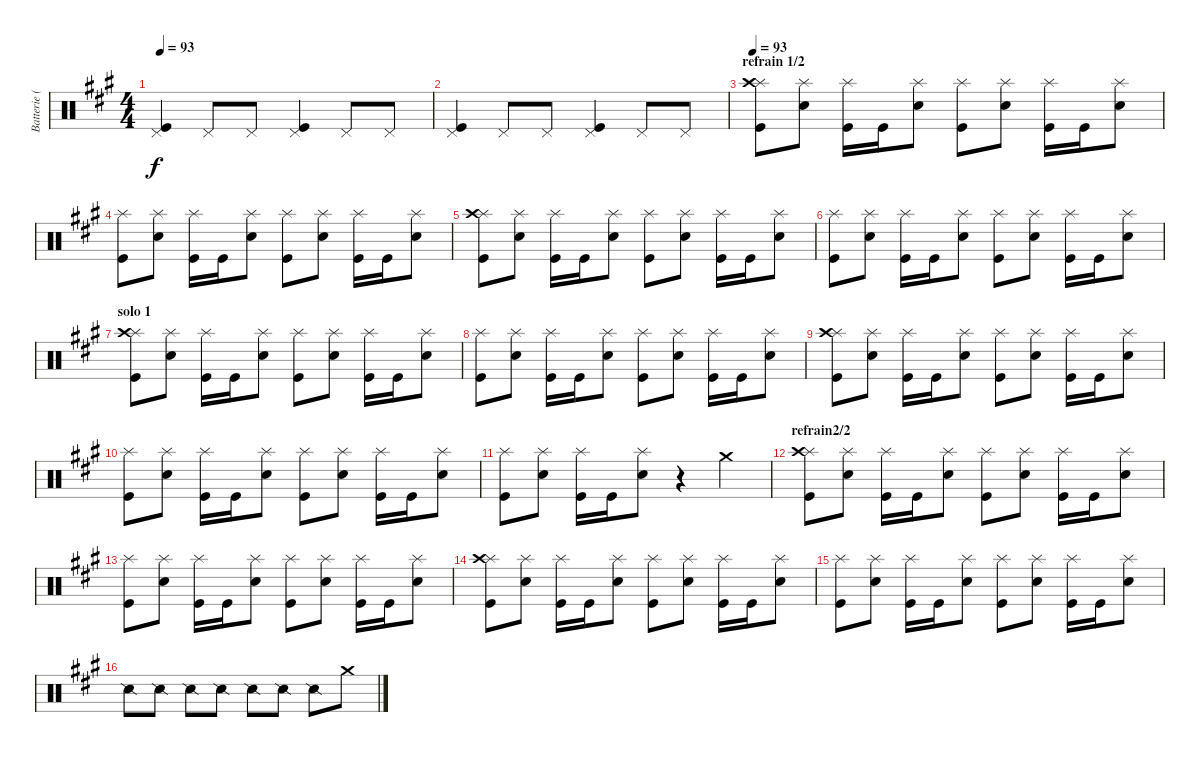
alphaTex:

\track ("Batterie (J-E)" "Batterie (") {instrument percussion}
\staff {score}
\articulation defaults
\ts (4 4)
\tempo 93
\clef neutral
\ks a
("Pedal Hi-Hat (hit)" "Kick (hit)").4{dy f} "Pedal Hi-Hat (hit)".8 "Pedal Hi-Hat (hit)".8 ("Pedal Hi-Hat (hit)" "Kick (hit)").4 "Pedal Hi-Hat (hit)".8 "Pedal Hi-Hat (hit)".8 |
("Pedal Hi-Hat (hit)" "Kick (hit)").4 "Pedal Hi-Hat (hit)".8 "Pedal Hi-Hat (hit)".8 ("Pedal Hi-Hat (hit)" "Kick (hit)").4 "Pedal Hi-Hat (hit)".8 "Pedal Hi-Hat (hit)".8 |
\section ("" "refrain 1/2")
\tempo 93
("Splash (hit)" "Crash high (hit)" "Kick (hit)").8 ("Splash (hit)" "Snare (hit) 2").8 ("Splash (hit)" "Kick (hit)").16 "Kick (hit)".16 ("Splash (hit)" "Snare (hit) 2").8 ("Splash (hit)" "Kick (hit)").8 ("Splash (hit)" "Snare (hit) 2").8 ("Splash (hit)" "Kick (hit)").16 "Kick (hit)".16 ("Splash (hit)" "Snare (hit) 2").8 |
("Splash (hit)" "Kick (hit)").8 ("Splash (hit)" "Snare (hit) 2").8 ("Splash (hit)" "Kick (hit)").16 "Kick (hit)".16 ("Splash (hit)" "Snare (hit) 2").8 ("Splash (hit)" "Kick (hit)").8 ("Splash (hit)" "Snare (hit) 2").8 ("Splash (hit)" "Kick (hit)").16 "Kick (hit)".16 ("Splash (hit)" "Snare (hit) 2").8 |
("Splash (hit)" "Crash high (hit)" "Kick (hit)").8 ("Splash (hit)" "Snare (hit) 2").8 ("Splash (hit)" "Kick (hit)").16 "Kick (hit)".16 ("Splash (hit)" "Snare (hit) 2").8 ("Splash (hit)" "Kick (hit)").8 ("Splash (hit)" "Snare (hit) 2").8 ("Splash (hit)" "Kick (hit)").16 "Kick (hit)".16 ("Splash (hit)" "Snare (hit) 2").8 |
("Splash (hit)" "Kick (hit)").8 ("Splash (hit)" "Snare (hit) 2").8 ("Splash (hit)" "Kick (hit)").16 "Kick (hit)".16 ("Splash (hit)" "Snare (hit) 2").8 ("Splash (hit)" "Kick (hit)").8 ("Splash (hit)" "Snare (hit) 2").8 ("Splash (hit)" "Kick (hit)").16 "Kick (hit)".16 ("Splash (hit)" "Snare (hit) 2").8 |
\section ("" "solo 1")
("Splash (hit)" "Crash high (hit)" "Kick (hit)").8 ("Splash (hit)" "Snare (hit) 2").8 ("Splash (hit)" "Kick (hit)").16 "Kick (hit)".16 ("Splash (hit)" "Snare (hit) 2").8 ("Splash (hit)" "Kick (hit)").8 ("Splash (hit)" "Snare (hit) 2").8 ("Splash (hit)" "Kick (hit)").16 "Kick (hit)".16 ("Splash (hit)" "Snare (hit) 2").8 |
("Splash (hit)" "Kick (hit)").8 ("Splash (hit)" "Snare (hit) 2").8 ("Splash (hit)" "Kick (hit)").16 "Kick (hit)".16 ("Splash (hit)" "Snare (hit) 2").8 ("Splash (hit)" "Kick (hit)").8 ("Splash (hit)" "Snare (hit) 2").8 ("Splash (hit)" "Kick (hit)").16 "Kick (hit)".16 ("Splash (hit)" "Snare (hit) 2").8 |
("Splash (hit)" "Crash high (hit)" "Kick (hit)").8 ("Splash (hit)" "Snare (hit) 2").8 ("Splash (hit)" "Kick (hit)").16 "Kick (hit)".16 ("Splash (hit)" "Snare (hit) 2").8 ("Splash (hit)" "Kick (hit)").8 ("Splash (hit)" "Snare (hit) 2").8 ("Splash (hit)" "Kick (hit)").16 "Kick (hit)".16 ("Splash (hit)" "Snare (hit) 2").8 |
("Splash (hit)" "Kick (hit)").8 ("Splash (hit)" "Snare (hit) 2").8 ("Splash (hit)" "Kick (hit)").16 "Kick (hit)".16 ("Splash (hit)" "Snare (hit) 2").8 ("Splash (hit)" "Kick (hit)").8 ("Splash (hit)" "Snare (hit) 2").8 ("Splash (hit)" "Kick (hit)").16 "Kick (hit)".16 ("Splash (hit)" "Snare (hit) 2").8 |
("Splash (hit)" "Kick (hit)").8 ("Splash (hit)" "Snare (hit) 2").8 ("Splash (hit)" "Kick (hit)").16 "Kick (hit)".16 ("Splash (hit)" "Snare (hit) 2").8 r.4 "Crash medium (hit)".4 |
\section ("" "refrain2/2")
("Splash (hit)" "Crash high (hit)" "Kick (hit)").8 ("Splash (hit)" "Snare (hit) 2").8 ("Splash (hit)" "Kick (hit)").16 "Kick (hit)".16 ("Splash (hit)" "Snare (hit) 2").8 ("Splash (hit)" "Kick (hit)").8 ("Splash (hit)" "Snare (hit) 2").8 ("Splash (hit)" "Kick (hit)").16 "Kick (hit)".16 ("Splash (hit)" "Snare (hit) 2").8 |
("Splash (hit)" "Kick (hit)").8 ("Splash (hit)" "Snare (hit) 2").8 ("Splash (hit)" "Kick (hit)").16 "Kick (hit)".16 ("Splash (hit)" "Snare (hit) 2").8 ("Splash (hit)" "Kick (hit)").8 ("Splash (hit)" "Snare (hit) 2").8 ("Splash (hit)" "Kick (hit)").16 "Kick (hit)".16 ("Splash (hit)" "Snare (hit) 2").8 |
("Splash (hit)" "Crash high (hit)" "Kick (hit)").8 ("Splash (hit)" "Snare (hit) 2").8 ("Splash (hit)" "Kick (hit)").16 "Kick (hit)".16 ("Splash (hit)" "Snare (hit) 2").8 ("Splash (hit)" "Kick (hit)").8 ("Splash (hit)" "Snare (hit) 2").8 ("Splash (hit)" "Kick (hit)").16 "Kick (hit)".16 ("Splash (hit)" "Snare (hit) 2").8 |
("Splash (hit)" "Kick (hit)").8 ("Splash (hit)" "Snare (hit) 2").8 ("Splash (hit)" "Kick (hit)").16 "Kick (hit)".16 ("Splash (hit)" "Snare (hit) 2").8 ("Splash (hit)" "Kick (hit)").8 ("Splash (hit)" "Snare (hit) 2").8 ("Splash (hit)" "Kick (hit)").16 "Kick (hit)".16 ("Splash (hit)" "Snare (hit) 2").8 |
"Snare (side stick) 2".8 "Snare (side stick) 2".8 "Snare (side stick) 2".8 "Snare (side stick) 2".8 "Snare (side stick) 2".8 "Snare (side stick) 2".8 "Snare (side stick) 2".8 "Crash medium (hit)".8
